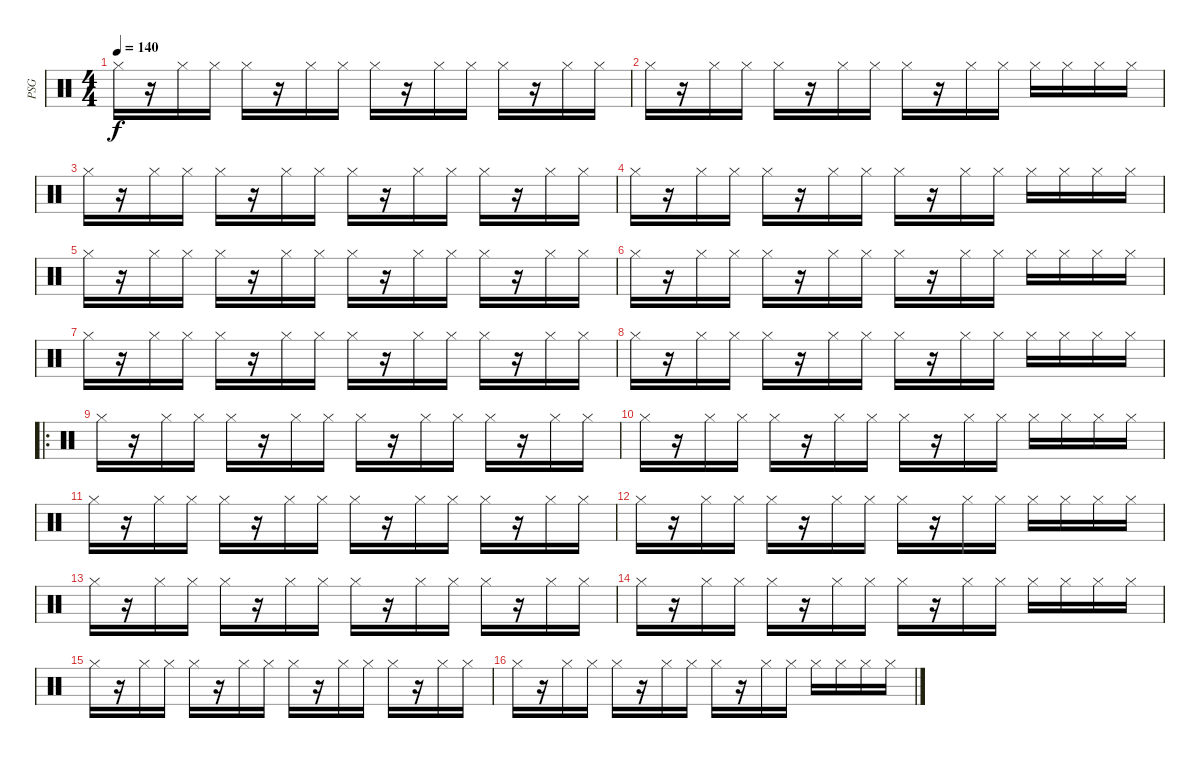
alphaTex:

\track ("PSG" "PSG") {instrument percussion}
\staff {score}
\articulation defaults
\ts (4 4)
\tempo 140
\clef neutral
\ks c "Hi-Hat (closed)".16{dy f}
r.16 "Hi-Hat (closed)".16 "Hi-Hat (closed)".16 "Hi-Hat (closed)".16 r.16 "Hi-Hat (closed)".16 "Hi-Hat (closed)".16 "Hi-Hat (closed)".16 r.16 "Hi-Hat (closed)".16 "Hi-Hat (closed)".16 "Hi-Hat (closed)".16 r.16 "Hi-Hat (closed)".16 "Hi-Hat (closed)".16 |
"Hi-Hat (closed)".16 r.16 "Hi-Hat (closed)".16 "Hi-Hat (closed)".16 "Hi-Hat (closed)".16 r.16 "Hi-Hat (closed)".16 "Hi-Hat (closed)".16 "Hi-Hat (closed)".16 r.16 "Hi-Hat (closed)".16 "Hi-Hat (closed)".16 "Hi-Hat (closed)".16 "Hi-Hat (closed)".16 "Hi-Hat (closed)".16 "Hi-Hat (closed)".16 |
"Hi-Hat (closed)".16 r.16 "Hi-Hat (closed)".16 "Hi-Hat (closed)".16 "Hi-Hat (closed)".16 r.16 "Hi-Hat (closed)".16 "Hi-Hat (closed)".16 "Hi-Hat (closed)".16 r.16 "Hi-Hat (closed)".16 "Hi-Hat (closed)".16 "Hi-Hat (closed)".16 r.16 "Hi-Hat (closed)".16 "Hi-Hat (closed)".16 |
"Hi-Hat (closed)".16 r.16 "Hi-Hat (closed)".16 "Hi-Hat (closed)".16 "Hi-Hat (closed)".16 r.16 "Hi-Hat (closed)".16 "Hi-Hat (closed)".16 "Hi-Hat (closed)".16 r.16 "Hi-Hat (closed)".16 "Hi-Hat (closed)".16 "Hi-Hat (closed)".16 "Hi-Hat (closed)".16 "Hi-Hat (closed)".16 "Hi-Hat (closed)".16 |
"Hi-Hat (closed)".16 r.16 "Hi-Hat (closed)".16 "Hi-Hat (closed)".16 "Hi-Hat (closed)".16 r.16 "Hi-Hat (closed)".16 "Hi-Hat (closed)".16 "Hi-Hat (closed)".16 r.16 "Hi-Hat (closed)".16 "Hi-Hat (closed)".16 "Hi-Hat (closed)".16 r.16 "Hi-Hat (closed)".16 "Hi-Hat (closed)".16 |
"Hi-Hat (closed)".16 r.16 "Hi-Hat (closed)".16 "Hi-Hat (closed)".16 "Hi-Hat (closed)".16 r.16 "Hi-Hat (closed)".16 "Hi-Hat (closed)".16 "Hi-Hat (closed)".16 r.16 "Hi-Hat (closed)".16 "Hi-Hat (closed)".16 "Hi-Hat (closed)".16 "Hi-Hat (closed)".16 "Hi-Hat (closed)".16 "Hi-Hat (closed)".16 |
"Hi-Hat (closed)".16 r.16 "Hi-Hat (closed)".16 "Hi-Hat (closed)".16 "Hi-Hat (closed)".16 r.16 "Hi-Hat (closed)".16 "Hi-Hat (closed)".16 "Hi-Hat (closed)".16 r.16 "Hi-Hat (closed)".16 "Hi-Hat (closed)".16 "Hi-Hat (closed)".16 r.16 "Hi-Hat (closed)".16 "Hi-Hat (closed)".16 |
"Hi-Hat (closed)".16 r.16 "Hi-Hat (closed)".16 "Hi-Hat (closed)".16 "Hi-Hat (closed)".16 r.16 "Hi-Hat (closed)".16 "Hi-Hat (closed)".16 "Hi-Hat (closed)".16 r.16 "Hi-Hat (closed)".16 "Hi-Hat (closed)".16 "Hi-Hat (closed)".16 "Hi-Hat (closed)".16 "Hi-Hat (closed)".16 "Hi-Hat (closed)".16 |
\ro "Hi-Hat (closed)".16
r.16 "Hi-Hat (closed)".16 "Hi-Hat (closed)".16 "Hi-Hat (closed)".16 r.16 "Hi-Hat (closed)".16 "Hi-Hat (closed)".16 "Hi-Hat (closed)".16 r.16 "Hi-Hat (closed)".16 "Hi-Hat (closed)".16 "Hi-Hat (closed)".16 r.16 "Hi-Hat (closed)".16 "Hi-Hat (closed)".16 |
"Hi-Hat (closed)".16 r.16 "Hi-Hat (closed)".16 "Hi-Hat (closed)".16 "Hi-Hat (closed)".16 r.16 "Hi-Hat (closed)".16 "Hi-Hat (closed)".16 "Hi-Hat (closed)".16 r.16 "Hi-Hat (closed)".16 "Hi-Hat (closed)".16 "Hi-Hat (closed)".16 "Hi-Hat (closed)".16 "Hi-Hat (closed)".16 "Hi-Hat (closed)".16 |
"Hi-Hat (closed)".16 r.16 "Hi-Hat (closed)".16 "Hi-Hat (closed)".16 "Hi-Hat (closed)".16 r.16 "Hi-Hat (closed)".16 "Hi-Hat (closed)".16 "Hi-Hat (closed)".16 r.16 "Hi-Hat (closed)".16 "Hi-Hat (closed)".16 "Hi-Hat (closed)".16 r.16 "Hi-Hat (closed)".16 "Hi-Hat (closed)".16 |
"Hi-Hat (closed)".16 r.16 "Hi-Hat (closed)".16 "Hi-Hat (closed)".16 "Hi-Hat (closed)".16 r.16 "Hi-Hat (closed)".16 "Hi-Hat (closed)".16 "Hi-Hat (closed)".16 r.16 "Hi-Hat (closed)".16 "Hi-Hat (closed)".16 "Hi-Hat (closed)".16 "Hi-Hat (closed)".16 "Hi-Hat (closed)".16 "Hi-Hat (closed)".16 |
"Hi-Hat (closed)".16 r.16 "Hi-Hat (closed)".16 "Hi-Hat (closed)".16 "Hi-Hat (closed)".16 r.16 "Hi-Hat (closed)".16 "Hi-Hat (closed)".16 "Hi-Hat (closed)".16 r.16 "Hi-Hat (closed)".16 "Hi-Hat (closed)".16 "Hi-Hat (closed)".16 r.16 "Hi-Hat (closed)".16 "Hi-Hat (closed)".16 |
"Hi-Hat (closed)".16 r.16 "Hi-Hat (closed)".16 "Hi-Hat (closed)".16 "Hi-Hat (closed)".16 r.16 "Hi-Hat (closed)".16 "Hi-Hat (closed)".16 "Hi-Hat (closed)".16 r.16 "Hi-Hat (closed)".16 "Hi-Hat (closed)".16 "Hi-Hat (closed)".16 "Hi-Hat (closed)".16 "Hi-Hat (closed)".16 "Hi-Hat (closed)".16 |
"Hi-Hat (closed)".16 r.16 "Hi-Hat (closed)".16 "Hi-Hat (closed)".16 "Hi-Hat (closed)".16 r.16 "Hi-Hat (closed)".16 "Hi-Hat (closed)".16 "Hi-Hat (closed)".16 r.16 "Hi-Hat (closed)".16 "Hi-Hat (closed)".16 "Hi-Hat (closed)".16 r.16 "Hi-Hat (closed)".16 "Hi-Hat (closed)".16 |
"Hi-Hat (closed)".16 r.16 "Hi-Hat (closed)".16 "Hi-Hat (closed)".16 "Hi-Hat (closed)".16 r.16 "Hi-Hat (closed)".16 "Hi-Hat (closed)".16 "Hi-Hat (closed)".16 r.16 "Hi-Hat (closed)".16 "Hi-Hat (closed)".16 "Hi-Hat (closed)".16 "Hi-Hat (closed)".16 "Hi-Hat (closed)".16 "Hi-Hat (closed)".16
